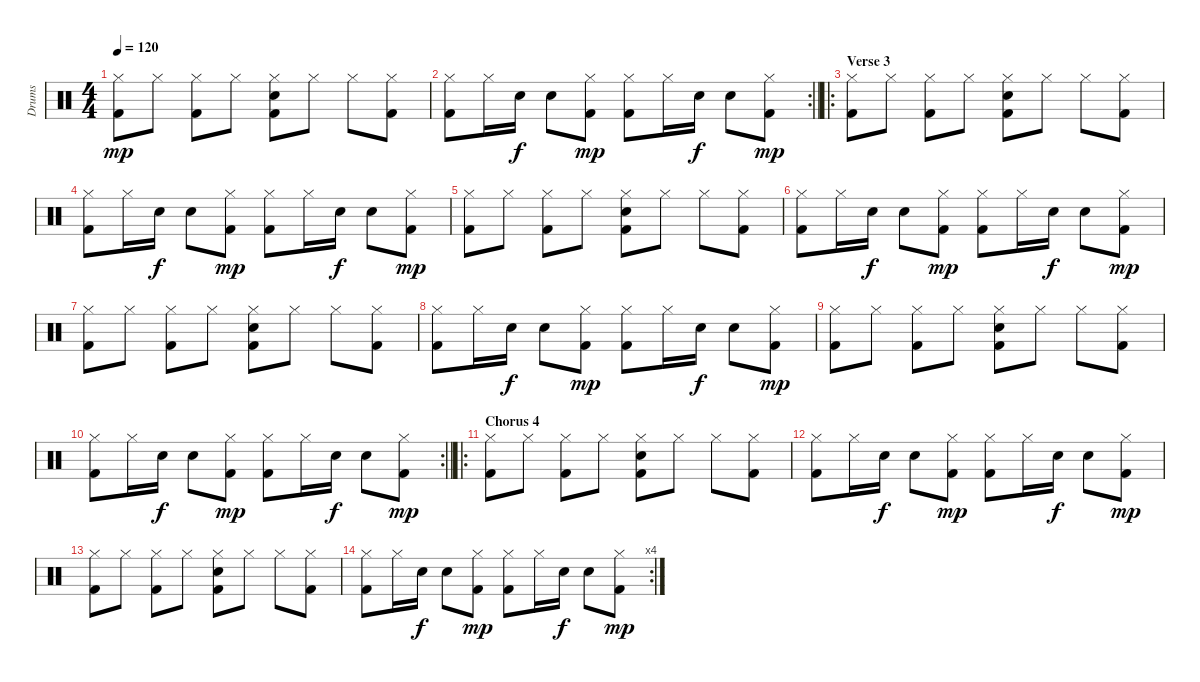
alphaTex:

\track ("Drums" "Drums") {instrument percussion}
\staff {score}
\articulation defaults
\ts (4 4)
\tempo 120
\clef neutral
\ks c
("Hi-Hat (closed)" "Kick (hit) 2").8{dy mp} "Hi-Hat (closed)".8 ("Hi-Hat (closed)" "Kick (hit) 2").8 "Hi-Hat (closed)".8 ("Hi-Hat (closed)" "Electric Snare (hit)" "Kick (hit) 2").8 "Hi-Hat (closed)".8 "Hi-Hat (closed)".8 ("Hi-Hat (closed)" "Kick (hit) 2").8 |
\rc 2
\barLineRight lightlight
("Hi-Hat (closed)" "Kick (hit) 2").8 "Hi-Hat (closed)".16 "Electric Snare (hit)".16{dy f} "Electric Snare (hit)".8 ("Hi-Hat (closed)" "Kick (hit) 2").8{dy mp} ("Hi-Hat (closed)" "Kick (hit) 2").8 "Hi-Hat (closed)".16 "Electric Snare (hit)".16{dy f} "Electric Snare (hit)".8 ("Hi-Hat (closed)" "Kick (hit) 2").8{dy mp} |
\ro
\section ("" "Verse 3")
("Hi-Hat (closed)" "Kick (hit) 2").8 "Hi-Hat (closed)".8 ("Hi-Hat (closed)" "Kick (hit) 2").8 "Hi-Hat (closed)".8 ("Hi-Hat (closed)" "Electric Snare (hit)" "Kick (hit) 2").8 "Hi-Hat (closed)".8 "Hi-Hat (closed)".8 ("Hi-Hat (closed)" "Kick (hit) 2").8 |
("Hi-Hat (closed)" "Kick (hit) 2").8 "Hi-Hat (closed)".16 "Electric Snare (hit)".16{dy f} "Electric Snare (hit)".8 ("Hi-Hat (closed)" "Kick (hit) 2").8{dy mp} ("Hi-Hat (closed)" "Kick (hit) 2").8 "Hi-Hat (closed)".16 "Electric Snare (hit)".16{dy f} "Electric Snare (hit)".8 ("Hi-Hat (closed)" "Kick (hit) 2").8{dy mp} |
("Hi-Hat (closed)" "Kick (hit) 2").8 "Hi-Hat (closed)".8 ("Hi-Hat (closed)" "Kick (hit) 2").8 "Hi-Hat (closed)".8 ("Hi-Hat (closed)" "Electric Snare (hit)" "Kick (hit) 2").8 "Hi-Hat (closed)".8 "Hi-Hat (closed)".8 ("Hi-Hat (closed)" "Kick (hit) 2").8 |
("Hi-Hat (closed)" "Kick (hit) 2").8 "Hi-Hat (closed)".16 "Electric Snare (hit)".16{dy f} "Electric Snare (hit)".8 ("Hi-Hat (closed)" "Kick (hit) 2").8{dy mp} ("Hi-Hat (closed)" "Kick (hit) 2").8 "Hi-Hat (closed)".16 "Electric Snare (hit)".16{dy f} "Electric Snare (hit)".8 ("Hi-Hat (closed)" "Kick (hit) 2").8{dy mp} |
("Hi-Hat (closed)" "Kick (hit) 2").8 "Hi-Hat (closed)".8 ("Hi-Hat (closed)" "Kick (hit) 2").8 "Hi-Hat (closed)".8 ("Hi-Hat (closed)" "Electric Snare (hit)" "Kick (hit) 2").8 "Hi-Hat (closed)".8 "Hi-Hat (closed)".8 ("Hi-Hat (closed)" "Kick (hit) 2").8 |
("Hi-Hat (closed)" "Kick (hit) 2").8 "Hi-Hat (closed)".16 "Electric Snare (hit)".16{dy f} "Electric Snare (hit)".8 ("Hi-Hat (closed)" "Kick (hit) 2").8{dy mp} ("Hi-Hat (closed)" "Kick (hit) 2").8 "Hi-Hat (closed)".16 "Electric Snare (hit)".16{dy f} "Electric Snare (hit)".8 ("Hi-Hat (closed)" "Kick (hit) 2").8{dy mp} |
("Hi-Hat (closed)" "Kick (hit) 2").8 "Hi-Hat (closed)".8 ("Hi-Hat (closed)" "Kick (hit) 2").8 "Hi-Hat (closed)".8 ("Hi-Hat (closed)" "Electric Snare (hit)" "Kick (hit) 2").8 "Hi-Hat (closed)".8 "Hi-Hat (closed)".8 ("Hi-Hat (closed)" "Kick (hit) 2").8 |
\rc 2
\barLineRight lightlight
("Hi-Hat (closed)" "Kick (hit) 2").8 "Hi-Hat (closed)".16 "Electric Snare (hit)".16{dy f} "Electric Snare (hit)".8 ("Hi-Hat (closed)" "Kick (hit) 2").8{dy mp} ("Hi-Hat (closed)" "Kick (hit) 2").8 "Hi-Hat (closed)".16 "Electric Snare (hit)".16{dy f} "Electric Snare (hit)".8 ("Hi-Hat (closed)" "Kick (hit) 2").8{dy mp} |
\ro
\section ("" "Chorus 4")
("Hi-Hat (closed)" "Kick (hit) 2").8 "Hi-Hat (closed)".8 ("Hi-Hat (closed)" "Kick (hit) 2").8 "Hi-Hat (closed)".8 ("Hi-Hat (closed)" "Electric Snare (hit)" "Kick (hit) 2").8 "Hi-Hat (closed)".8 "Hi-Hat (closed)".8 ("Hi-Hat (closed)" "Kick (hit) 2").8 |
("Hi-Hat (closed)" "Kick (hit) 2").8 "Hi-Hat (closed)".16 "Electric Snare (hit)".16{dy f} "Electric Snare (hit)".8 ("Hi-Hat (closed)" "Kick (hit) 2").8{dy mp} ("Hi-Hat (closed)" "Kick (hit) 2").8 "Hi-Hat (closed)".16 "Electric Snare (hit)".16{dy f} "Electric Snare (hit)".8 ("Hi-Hat (closed)" "Kick (hit) 2").8{dy mp} |
("Hi-Hat (closed)" "Kick (hit) 2").8 "Hi-Hat (closed)".8 ("Hi-Hat (closed)" "Kick (hit) 2").8 "Hi-Hat (closed)".8 ("Hi-Hat (closed)" "Electric Snare (hit)" "Kick (hit) 2").8 "Hi-Hat (closed)".8 "Hi-Hat (closed)".8 ("Hi-Hat (closed)" "Kick (hit) 2").8 |
\rc 4
("Hi-Hat (closed)" "Kick (hit) 2").8 "Hi-Hat (closed)".16 "Electric Snare (hit)".16{dy f} "Electric Snare (hit)".8 ("Hi-Hat (closed)" "Kick (hit) 2").8{dy mp} ("Hi-Hat (closed)" "Kick (hit) 2").8 "Hi-Hat (closed)".16 "Electric Snare (hit)".16{dy f} "Electric Snare (hit)".8 ("Hi-Hat (closed)" "Kick (hit) 2").8{dy mp}
